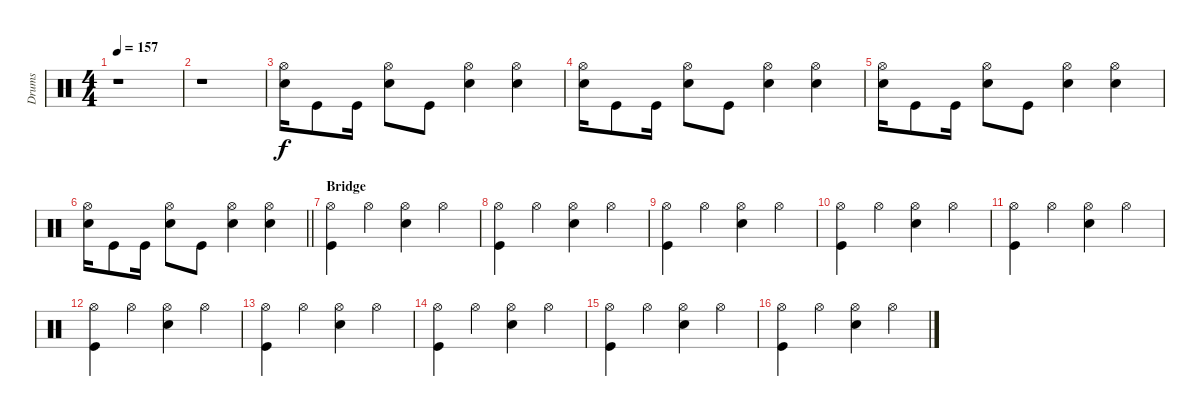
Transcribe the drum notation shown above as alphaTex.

\track ("Drums" "Drums") {instrument percussion}
\staff {score}
\articulation defaults
\ts (4 4)
\tempo 157
\clef neutral
\ks c
r.1{dy f} |
r.1 |
("Hi-Hat (open)" "Snare (hit) 2").16 "Kick (hit)".8 "Kick (hit)".16 ("Hi-Hat (open)" "Snare (hit) 2").8 "Kick (hit)".8 ("Hi-Hat (open)" "Snare (hit) 2").4 ("Hi-Hat (open)" "Snare (hit) 2").4 |
("Hi-Hat (open)" "Snare (hit) 2").16 "Kick (hit)".8 "Kick (hit)".16 ("Hi-Hat (open)" "Snare (hit) 2").8 "Kick (hit)".8 ("Hi-Hat (open)" "Snare (hit) 2").4 ("Hi-Hat (open)" "Snare (hit) 2").4 |
("Hi-Hat (open)" "Snare (hit) 2").16 "Kick (hit)".8 "Kick (hit)".16 ("Hi-Hat (open)" "Snare (hit) 2").8 "Kick (hit)".8 ("Hi-Hat (open)" "Snare (hit) 2").4 ("Hi-Hat (open)" "Snare (hit) 2").4 |
\barLineRight lightlight
("Hi-Hat (open)" "Snare (hit) 2").16 "Kick (hit)".8 "Kick (hit)".16 ("Hi-Hat (open)" "Snare (hit) 2").8 "Kick (hit)".8 ("Hi-Hat (open)" "Snare (hit) 2").4 ("Hi-Hat (open)" "Snare (hit) 2").4 |
\section ("" "Bridge")
("Hi-Hat (open)" "Kick (hit)").4 "Hi-Hat (open)".4 ("Hi-Hat (open)" "Snare (hit) 2").4 "Hi-Hat (open)".4 |
("Hi-Hat (open)" "Kick (hit)").4 "Hi-Hat (open)".4 ("Hi-Hat (open)" "Snare (hit) 2").4 "Hi-Hat (open)".4 |
("Hi-Hat (open)" "Kick (hit)").4 "Hi-Hat (open)".4 ("Hi-Hat (open)" "Snare (hit) 2").4 "Hi-Hat (open)".4 |
("Hi-Hat (open)" "Kick (hit)").4 "Hi-Hat (open)".4 ("Hi-Hat (open)" "Snare (hit) 2").4 "Hi-Hat (open)".4 |
("Hi-Hat (open)" "Kick (hit)").4 "Hi-Hat (open)".4 ("Hi-Hat (open)" "Snare (hit) 2").4 "Hi-Hat (open)".4 |
("Hi-Hat (open)" "Kick (hit)").4 "Hi-Hat (open)".4 ("Hi-Hat (open)" "Snare (hit) 2").4 "Hi-Hat (open)".4 |
("Hi-Hat (open)" "Kick (hit)").4 "Hi-Hat (open)".4 ("Hi-Hat (open)" "Snare (hit) 2").4 "Hi-Hat (open)".4 |
("Hi-Hat (open)" "Kick (hit)").4 "Hi-Hat (open)".4 ("Hi-Hat (open)" "Snare (hit) 2").4 "Hi-Hat (open)".4 |
("Hi-Hat (open)" "Kick (hit)").4 "Hi-Hat (open)".4 ("Hi-Hat (open)" "Snare (hit) 2").4 "Hi-Hat (open)".4 |
("Hi-Hat (open)" "Kick (hit)").4 "Hi-Hat (open)".4 ("Hi-Hat (open)" "Snare (hit) 2").4 "Hi-Hat (open)".4
